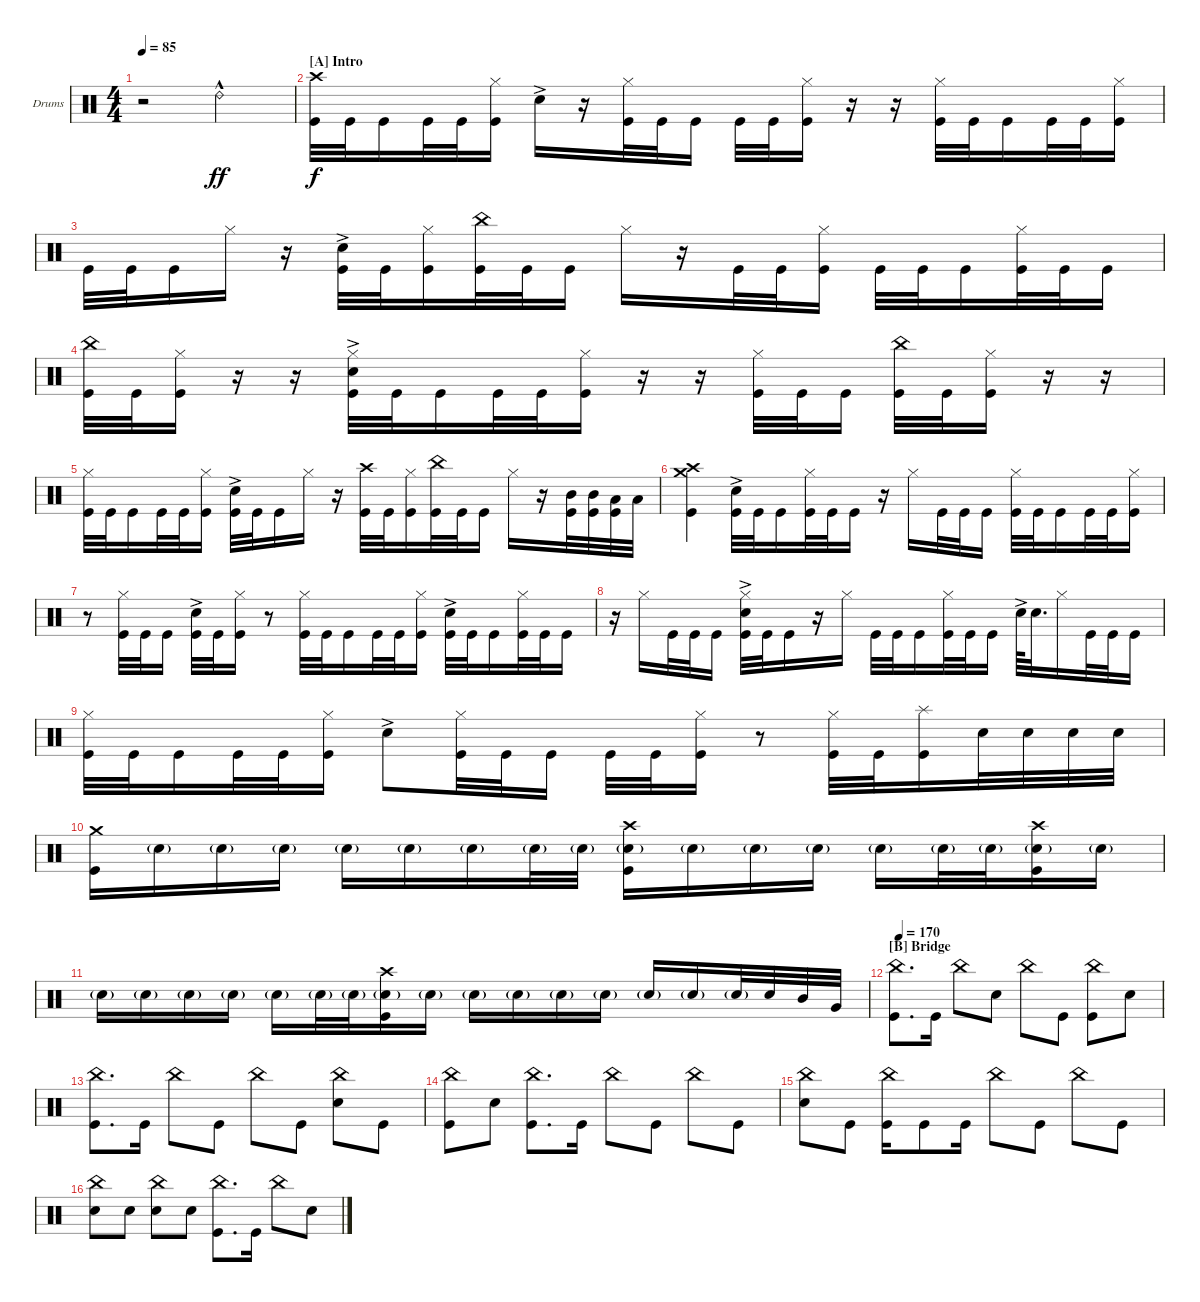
\defaultSystemsLayout 4
\bracketExtendMode groupsimilarinstruments
\firstSystemTrackNameOrientation horizontal
\otherSystemsTrackNameOrientation horizontal
\track ("Drumkit" "Drums") {instrument percussion}
\staff {score}
\articulation defaults
\ts (4 4)
\tempo 85
\clef neutral
\ks c
r.2{dy ff} "Ride (bell) 2"{hac}.2 |
\section ("A" "Intro")
("Crash high (hit)" "Kick (hit)").32{dy f} "Kick (hit)".32 "Kick (hit)".16 "Kick (hit)".32 "Kick (hit)".32 ("Kick (hit)" "Hi-Hat (closed)").16 "Snare (hit) 2"{ac}.16 r.16 ("Kick (hit)" "Hi-Hat (closed)").32 "Kick (hit)".32 "Kick (hit)".16 "Kick (hit)".32 "Kick (hit)".32 ("Kick (hit)" "Hi-Hat (closed)").16 r.16 r.16 ("Kick (hit)" "Hi-Hat (closed)").32 "Kick (hit)".32 "Kick (hit)".16 "Kick (hit)".32 "Kick (hit)".32 ("Kick (hit)" "Hi-Hat (closed)").16 |
"Kick (hit)".32 "Kick (hit)".32 "Kick (hit)".16 "Hi-Hat (closed)".16 r.16 ("Kick (hit)" "Snare (hit) 2"{ac}).32 "Kick (hit)".32 ("Kick (hit)" "Hi-Hat (closed)").16 ("Kick (hit)" "China (hit)").32 "Kick (hit)".32 "Kick (hit)".16 "Hi-Hat (closed)".16 r.16 "Kick (hit)".32 "Kick (hit)".32 ("Kick (hit)" "Hi-Hat (closed)").16 "Kick (hit)".32 "Kick (hit)".32 "Kick (hit)".16 ("Kick (hit)" "Hi-Hat (closed)").32 "Kick (hit)".32 "Kick (hit)".16 |
("China (hit)" "Kick (hit)").32 "Kick (hit)".32 ("Kick (hit)" "Hi-Hat (closed)").16 r.16 r.16 ("Kick (hit)" "Hi-Hat (closed)" "Snare (hit) 2"{ac}).32 "Kick (hit)".32 "Kick (hit)".16 "Kick (hit)".32 "Kick (hit)".32 ("Kick (hit)" "Hi-Hat (closed)").16 r.16 r.16 ("Kick (hit)" "Hi-Hat (closed)").32 "Kick (hit)".32 "Kick (hit)".16 ("Kick (hit)" "China (hit)").32 "Kick (hit)".32 ("Kick (hit)" "Hi-Hat (closed)").16 r.16 r.16 |
("Kick (hit)" "Hi-Hat (closed)").32 "Kick (hit)".32 "Kick (hit)".16 "Kick (hit)".32 "Kick (hit)".32 ("Kick (hit)" "Hi-Hat (closed)").16 ("Kick (hit)" "Snare (hit) 2"{ac}).32 "Kick (hit)".32 "Kick (hit)".16 "Hi-Hat (closed)".16 r.16 ("Kick (hit)" "Crash high (hit)").32 "Kick (hit)".32 ("Kick (hit)" "Hi-Hat (closed)").16 ("Kick (hit)" "China (hit)").32 "Kick (hit)".32 "Kick (hit)".16 "Hi-Hat (closed)".16 r.16 ("Kick (hit)" "Mid Tom (hit)").32 ("Mid Tom (hit)" "Kick (hit)").32 ("Low Tom (hit)" "Kick (hit)").32 "Low Tom (hit)".32 |
("Kick (hit)" "Crash high (hit)" "Crash medium (hit)").4 ("Kick (hit)" "Snare (hit) 2"{ac}).32 "Kick (hit)".32 "Kick (hit)".16 ("Kick (hit)" "Hi-Hat (closed)").32 "Kick (hit)".32 "Kick (hit)".16 r.16 "Hi-Hat (closed)".16 "Kick (hit)".32 "Kick (hit)".32 "Kick (hit)".16 ("Kick (hit)" "Hi-Hat (closed)").32 "Kick (hit)".32 "Kick (hit)".16 "Kick (hit)".32 "Kick (hit)".32 ("Kick (hit)" "Hi-Hat (closed)").16 |
r.8 ("Kick (hit)" "Hi-Hat (closed)").32 "Kick (hit)".32 "Kick (hit)".16 ("Kick (hit)" "Snare (hit) 2"{ac}).32 "Kick (hit)".32 ("Kick (hit)" "Hi-Hat (closed)").16 r.8 ("Kick (hit)" "Hi-Hat (closed)").32 "Kick (hit)".32 "Kick (hit)".16 "Kick (hit)".32 "Kick (hit)".32 ("Kick (hit)" "Hi-Hat (closed)").16 ("Kick (hit)" "Snare (hit) 2"{ac}).32 "Kick (hit)".32 "Kick (hit)".16 ("Kick (hit)" "Hi-Hat (closed)").32 "Kick (hit)".32 "Kick (hit)".16 |
r.16 "Hi-Hat (closed)".16 "Kick (hit)".32 "Kick (hit)".32 "Kick (hit)".16 ("Kick (hit)" "Snare (hit) 2"{ac} "Hi-Hat (closed)").32 "Kick (hit)".32 "Kick (hit)".16 r.16 "Hi-Hat (closed)".16 "Kick (hit)".32 "Kick (hit)".32 "Kick (hit)".16 ("Kick (hit)" "Hi-Hat (closed)").32 "Kick (hit)".32 "Kick (hit)".16 "Snare (hit) 2"{ac}.64 "Snare (hit) 2".32{d} "Hi-Hat (closed)".16 "Kick (hit)".32 "Kick (hit)".32 "Kick (hit)".16 |
("Kick (hit)" "Hi-Hat (closed)").32 "Kick (hit)".32 "Kick (hit)".16 "Kick (hit)".32 "Kick (hit)".32 ("Kick (hit)" "Hi-Hat (closed)").16 "Snare (hit) 2"{ac}.8 ("Kick (hit)" "Hi-Hat (closed)").32 "Kick (hit)".32 "Kick (hit)".16 "Kick (hit)".32 "Kick (hit)".32 ("Kick (hit)" "Hi-Hat (closed)").16 r.8 ("Kick (hit)" "Hi-Hat (closed)").32 "Kick (hit)".32 ("Kick (hit)" "Splash (hit)").16 "Snare (hit) 2".32 "Snare (hit) 2".32 "Snare (hit) 2".32 "Snare (hit) 2".32 |
("Crash medium (hit)" "Kick (hit)").16 "Snare (hit) 2"{g}.16 "Snare (hit) 2"{g}.16 "Snare (hit) 2"{g}.16 "Snare (hit) 2"{g}.16 "Snare (hit) 2"{g}.16 "Snare (hit) 2"{g}.16 "Snare (hit) 2"{g}.32 "Snare (hit) 2"{g}.32 ("Snare (hit) 2"{g} "Kick (hit)" "Crash high (hit)").16 "Snare (hit) 2"{g}.16 "Snare (hit) 2"{g}.16 "Snare (hit) 2"{g}.16 "Snare (hit) 2"{g}.16 "Snare (hit) 2"{g}.32 "Snare (hit) 2"{g}.32 ("Snare (hit) 2"{g} "Kick (hit)" "Crash high (hit)").16 "Snare (hit) 2"{g}.16 |
"Snare (hit) 2"{g}.16 "Snare (hit) 2"{g}.16 "Snare (hit) 2"{g}.16 "Snare (hit) 2"{g}.16 "Snare (hit) 2"{g}.16 "Snare (hit) 2"{g}.32 "Snare (hit) 2"{g}.32 ("Snare (hit) 2"{g} "Kick (hit)" "Crash high (hit)").16 "Snare (hit) 2"{g}.16 "Snare (hit) 2"{g}.16 "Snare (hit) 2"{g}.16 "Snare (hit) 2"{g}.16 "Snare (hit) 2"{g}.16 "Snare (hit) 2"{g}.16 "Snare (hit) 2"{g}.16 "Snare (hit) 2"{g}.32 "Snare (hit) 2".32 "Mid Tom (hit)".32 "Very Low Tom (hit)".32 |
\section ("B" "Bridge")
\tempo (170 0.00625)
("China (hit)" "Kick (hit)").8{d} "Kick (hit)".16 "China (hit)".8 "Snare (hit) 2".8 "China (hit)".8 "Kick (hit)".8 ("China (hit)" "Kick (hit)").8 "Snare (hit) 2".8 |
("China (hit)" "Kick (hit)").8{d} "Kick (hit)".16 "China (hit)".8 "Kick (hit)".8 "China (hit)".8 "Kick (hit)".8 ("China (hit)" "Snare (hit) 2").8 "Kick (hit)".8 |
("China (hit)" "Kick (hit)").8 "Snare (hit) 2".8 ("China (hit)" "Kick (hit)").8{d} "Kick (hit)".16 "China (hit)".8 "Kick (hit)".8 "China (hit)".8 "Kick (hit)".8 |
("China (hit)" "Snare (hit) 2").8 "Kick (hit)".8 ("China (hit)" "Kick (hit)").16 "Kick (hit)".8 "Kick (hit)".16 "China (hit)".8 "Kick (hit)".8 "China (hit)".8 "Kick (hit)".8 |
("China (hit)" "Snare (hit) 2").8 "Snare (hit) 2".8 ("China (hit)" "Snare (hit) 2").8 "Snare (hit) 2".8 ("China (hit)" "Kick (hit)").8{d} "Kick (hit)".16 "China (hit)".8 "Snare (hit) 2".8
